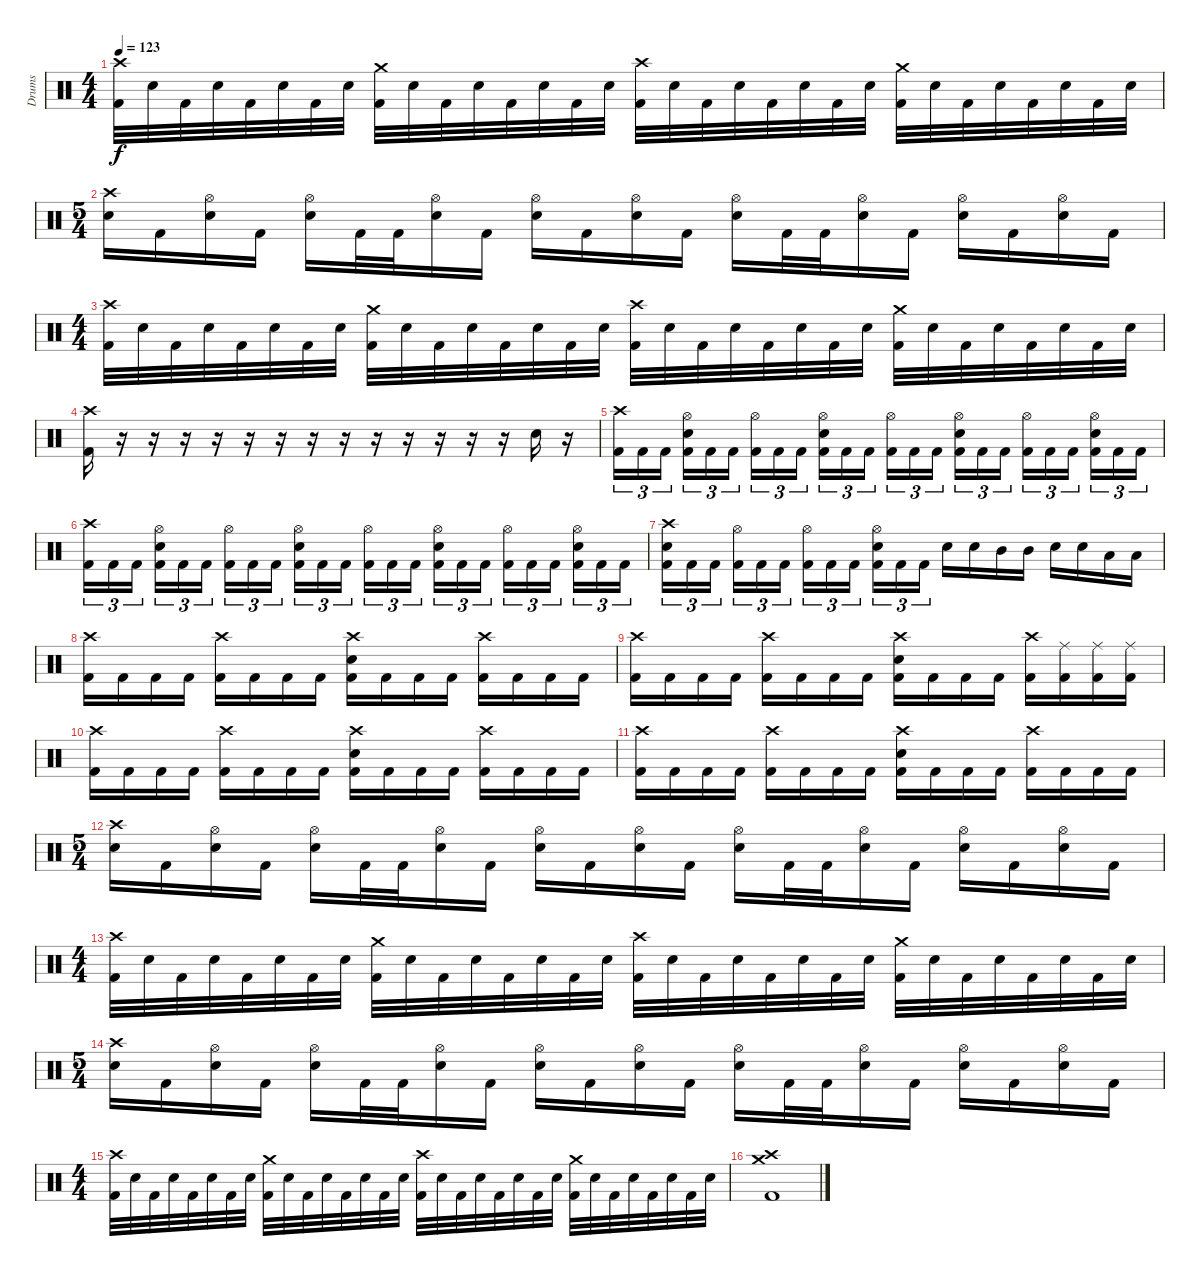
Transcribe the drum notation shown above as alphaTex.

\track ("Drums" "Drums") {instrument percussion}
\staff {score}
\articulation defaults
\ts (4 4)
\tempo 123
\clef neutral
\ks c
("Crash high (hit)" "Kick (hit) 2").32{dy f} "Electric Snare (hit)".32 "Kick (hit) 2".32 "Electric Snare (hit)".32 "Kick (hit) 2".32 "Electric Snare (hit)".32 "Kick (hit) 2".32 "Electric Snare (hit)".32 ("Crash medium (hit)" "Kick (hit) 2").32 "Electric Snare (hit)".32 "Kick (hit) 2".32 "Electric Snare (hit)".32 "Kick (hit) 2".32 "Electric Snare (hit)".32 "Kick (hit) 2".32 "Electric Snare (hit)".32 ("Crash high (hit)" "Kick (hit) 2").32 "Electric Snare (hit)".32 "Kick (hit) 2".32 "Electric Snare (hit)".32 "Kick (hit) 2".32 "Electric Snare (hit)".32 "Kick (hit) 2".32 "Electric Snare (hit)".32 ("Crash medium (hit)" "Kick (hit) 2").32 "Electric Snare (hit)".32 "Kick (hit) 2".32 "Electric Snare (hit)".32 "Kick (hit) 2".32 "Electric Snare (hit)".32 "Kick (hit) 2".32 "Electric Snare (hit)".32 |
\ts (5 4)
("Crash high (hit)" "Electric Snare (hit)").16 "Kick (hit) 2".16 ("Hi-Hat (open)" "Electric Snare (hit)").16 "Kick (hit) 2".16 ("Hi-Hat (open)" "Electric Snare (hit)").16 "Kick (hit) 2".32 "Kick (hit) 2".32 ("Hi-Hat (open)" "Electric Snare (hit)").16 "Kick (hit) 2".16 ("Hi-Hat (open)" "Electric Snare (hit)").16 "Kick (hit) 2".16 ("Hi-Hat (open)" "Electric Snare (hit)").16 "Kick (hit) 2".16 ("Hi-Hat (open)" "Electric Snare (hit)").16 "Kick (hit) 2".32 "Kick (hit) 2".32 ("Hi-Hat (open)" "Electric Snare (hit)").16 "Kick (hit) 2".16 ("Hi-Hat (open)" "Electric Snare (hit)").16 "Kick (hit) 2".16 ("Hi-Hat (open)" "Electric Snare (hit)").16 "Kick (hit) 2".16 |
\ts (4 4)
("Crash high (hit)" "Kick (hit) 2").32 "Electric Snare (hit)".32 "Kick (hit) 2".32 "Electric Snare (hit)".32 "Kick (hit) 2".32 "Electric Snare (hit)".32 "Kick (hit) 2".32 "Electric Snare (hit)".32 ("Crash medium (hit)" "Kick (hit) 2").32 "Electric Snare (hit)".32 "Kick (hit) 2".32 "Electric Snare (hit)".32 "Kick (hit) 2".32 "Electric Snare (hit)".32 "Kick (hit) 2".32 "Electric Snare (hit)".32 ("Crash high (hit)" "Kick (hit) 2").32 "Electric Snare (hit)".32 "Kick (hit) 2".32 "Electric Snare (hit)".32 "Kick (hit) 2".32 "Electric Snare (hit)".32 "Kick (hit) 2".32 "Electric Snare (hit)".32 ("Crash medium (hit)" "Kick (hit) 2").32 "Electric Snare (hit)".32 "Kick (hit) 2".32 "Electric Snare (hit)".32 "Kick (hit) 2".32 "Electric Snare (hit)".32 "Kick (hit) 2".32 "Electric Snare (hit)".32 |
("Crash high (hit)" "Kick (hit) 2").16 r.16{volume 0} r.16 r.16 r.16 r.16 r.16 r.16 r.16 r.16 r.16 r.16 r.16 r.16 "Electric Snare (hit)".16{volume 13} r.16 |
("Crash high (hit)" "Kick (hit) 2").16{tu (3 2)} "Kick (hit) 2".16{tu (3 2)} "Kick (hit) 2".16{tu (3 2) beam splitsecondary} ("Hi-Hat (open)" "Electric Snare (hit)" "Kick (hit) 2").16{tu (3 2)} "Kick (hit) 2".16{tu (3 2)} "Kick (hit) 2".16{tu (3 2)} ("Hi-Hat (open)" "Kick (hit) 2").16{tu (3 2)} "Kick (hit) 2".16{tu (3 2)} "Kick (hit) 2".16{tu (3 2) beam splitsecondary} ("Hi-Hat (open)" "Electric Snare (hit)" "Kick (hit) 2").16{tu (3 2)} "Kick (hit) 2".16{tu (3 2)} "Kick (hit) 2".16{tu (3 2)} ("Hi-Hat (open)" "Kick (hit) 2").16{tu (3 2)} "Kick (hit) 2".16{tu (3 2)} "Kick (hit) 2".16{tu (3 2) beam splitsecondary} ("Hi-Hat (open)" "Electric Snare (hit)" "Kick (hit) 2").16{tu (3 2)} "Kick (hit) 2".16{tu (3 2)} "Kick (hit) 2".16{tu (3 2)} ("Hi-Hat (open)" "Kick (hit) 2").16{tu (3 2)} "Kick (hit) 2".16{tu (3 2)} "Kick (hit) 2".16{tu (3 2) beam splitsecondary} ("Hi-Hat (open)" "Electric Snare (hit)" "Kick (hit) 2").16{tu (3 2)} "Kick (hit) 2".16{tu (3 2)} "Kick (hit) 2".16{tu (3 2)} |
("Crash high (hit)" "Kick (hit) 2").16{tu (3 2)} "Kick (hit) 2".16{tu (3 2)} "Kick (hit) 2".16{tu (3 2) beam splitsecondary} ("Hi-Hat (open)" "Electric Snare (hit)" "Kick (hit) 2").16{tu (3 2)} "Kick (hit) 2".16{tu (3 2)} "Kick (hit) 2".16{tu (3 2)} ("Hi-Hat (open)" "Kick (hit) 2").16{tu (3 2)} "Kick (hit) 2".16{tu (3 2)} "Kick (hit) 2".16{tu (3 2) beam splitsecondary} ("Hi-Hat (open)" "Electric Snare (hit)" "Kick (hit) 2").16{tu (3 2)} "Kick (hit) 2".16{tu (3 2)} "Kick (hit) 2".16{tu (3 2)} ("Hi-Hat (open)" "Kick (hit) 2").16{tu (3 2)} "Kick (hit) 2".16{tu (3 2)} "Kick (hit) 2".16{tu (3 2) beam splitsecondary} ("Hi-Hat (open)" "Electric Snare (hit)" "Kick (hit) 2").16{tu (3 2)} "Kick (hit) 2".16{tu (3 2)} "Kick (hit) 2".16{tu (3 2)} ("Hi-Hat (open)" "Kick (hit) 2").16{tu (3 2)} "Kick (hit) 2".16{tu (3 2)} "Kick (hit) 2".16{tu (3 2) beam splitsecondary} ("Hi-Hat (open)" "Electric Snare (hit)" "Kick (hit) 2").16{tu (3 2)} "Kick (hit) 2".16{tu (3 2)} "Kick (hit) 2".16{tu (3 2)} |
("Crash high (hit)" "Electric Snare (hit)" "Kick (hit) 2").16{tu (3 2)} "Kick (hit) 2".16{tu (3 2)} "Kick (hit) 2".16{tu (3 2) beam splitsecondary} ("Hi-Hat (open)" "Kick (hit) 2").16{tu (3 2)} "Kick (hit) 2".16{tu (3 2)} "Kick (hit) 2".16{tu (3 2)} ("Hi-Hat (open)" "Kick (hit) 2").16{tu (3 2)} "Kick (hit) 2".16{tu (3 2)} "Kick (hit) 2".16{tu (3 2) beam splitsecondary} ("Hi-Hat (open)" "Electric Snare (hit)" "Kick (hit) 2").16{tu (3 2)} "Kick (hit) 2".16{tu (3 2)} "Kick (hit) 2".16{tu (3 2)} "Electric Snare (hit)".16 "Electric Snare (hit)".16 "Mid Tom (hit)".16 "Mid Tom (hit)".16 "Electric Snare (hit)".16 "Electric Snare (hit)".16 "Low Tom (hit)".16 "Low Tom (hit)".16 |
("Crash high (hit)" "Kick (hit) 2").16 "Kick (hit) 2".16 "Kick (hit) 2".16 "Kick (hit) 2".16 ("Crash high (hit)" "Kick (hit) 2").16 "Kick (hit) 2".16 "Kick (hit) 2".16 "Kick (hit) 2".16 ("Crash high (hit)" "Electric Snare (hit)" "Kick (hit) 2").16 "Kick (hit) 2".16 "Kick (hit) 2".16 "Kick (hit) 2".16 ("Crash high (hit)" "Kick (hit) 2").16 "Kick (hit) 2".16 "Kick (hit) 2".16 "Kick (hit) 2".16 |
("Crash high (hit)" "Kick (hit) 2").16 "Kick (hit) 2".16 "Kick (hit) 2".16 "Kick (hit) 2".16 ("Crash high (hit)" "Kick (hit) 2").16 "Kick (hit) 2".16 "Kick (hit) 2".16 "Kick (hit) 2".16 ("Crash high (hit)" "Electric Snare (hit)" "Kick (hit) 2").16 "Kick (hit) 2".16 "Kick (hit) 2".16 "Kick (hit) 2".16 ("Crash high (hit)" "Kick (hit) 2").16 ("Ride (middle)" "Kick (hit) 2").16 ("Ride (middle)" "Kick (hit) 2").16 ("Ride (middle)" "Kick (hit) 2").16 |
("Crash high (hit)" "Kick (hit) 2").16 "Kick (hit) 2".16 "Kick (hit) 2".16 "Kick (hit) 2".16 ("Crash high (hit)" "Kick (hit) 2").16 "Kick (hit) 2".16 "Kick (hit) 2".16 "Kick (hit) 2".16 ("Crash high (hit)" "Electric Snare (hit)" "Kick (hit) 2").16 "Kick (hit) 2".16 "Kick (hit) 2".16 "Kick (hit) 2".16 ("Crash high (hit)" "Kick (hit) 2").16 "Kick (hit) 2".16 "Kick (hit) 2".16 "Kick (hit) 2".16 |
("Crash high (hit)" "Kick (hit) 2").16 "Kick (hit) 2".16 "Kick (hit) 2".16 "Kick (hit) 2".16 ("Crash high (hit)" "Kick (hit) 2").16 "Kick (hit) 2".16 "Kick (hit) 2".16 "Kick (hit) 2".16 ("Crash high (hit)" "Electric Snare (hit)" "Kick (hit) 2").16 "Kick (hit) 2".16 "Kick (hit) 2".16 "Kick (hit) 2".16 ("Crash high (hit)" "Kick (hit) 2").16 "Kick (hit) 2".16 "Kick (hit) 2".16 "Kick (hit) 2".16 |
\ts (5 4)
("Crash high (hit)" "Electric Snare (hit)").16 "Kick (hit) 2".16 ("Hi-Hat (open)" "Electric Snare (hit)").16 "Kick (hit) 2".16 ("Hi-Hat (open)" "Electric Snare (hit)").16 "Kick (hit) 2".32 "Kick (hit) 2".32 ("Hi-Hat (open)" "Electric Snare (hit)").16 "Kick (hit) 2".16 ("Hi-Hat (open)" "Electric Snare (hit)").16 "Kick (hit) 2".16 ("Hi-Hat (open)" "Electric Snare (hit)").16 "Kick (hit) 2".16 ("Hi-Hat (open)" "Electric Snare (hit)").16 "Kick (hit) 2".32 "Kick (hit) 2".32 ("Hi-Hat (open)" "Electric Snare (hit)").16 "Kick (hit) 2".16 ("Hi-Hat (open)" "Electric Snare (hit)").16 "Kick (hit) 2".16 ("Hi-Hat (open)" "Electric Snare (hit)").16 "Kick (hit) 2".16 |
\ts (4 4)
("Crash high (hit)" "Kick (hit) 2").32 "Electric Snare (hit)".32 "Kick (hit) 2".32 "Electric Snare (hit)".32 "Kick (hit) 2".32 "Electric Snare (hit)".32 "Kick (hit) 2".32 "Electric Snare (hit)".32 ("Crash medium (hit)" "Kick (hit) 2").32 "Electric Snare (hit)".32 "Kick (hit) 2".32 "Electric Snare (hit)".32 "Kick (hit) 2".32 "Electric Snare (hit)".32 "Kick (hit) 2".32 "Electric Snare (hit)".32 ("Crash high (hit)" "Kick (hit) 2").32 "Electric Snare (hit)".32 "Kick (hit) 2".32 "Electric Snare (hit)".32 "Kick (hit) 2".32 "Electric Snare (hit)".32 "Kick (hit) 2".32 "Electric Snare (hit)".32 ("Crash medium (hit)" "Kick (hit) 2").32 "Electric Snare (hit)".32 "Kick (hit) 2".32 "Electric Snare (hit)".32 "Kick (hit) 2".32 "Electric Snare (hit)".32 "Kick (hit) 2".32 "Electric Snare (hit)".32 |
\ts (5 4)
("Crash high (hit)" "Electric Snare (hit)").16 "Kick (hit) 2".16 ("Hi-Hat (open)" "Electric Snare (hit)").16 "Kick (hit) 2".16 ("Hi-Hat (open)" "Electric Snare (hit)").16 "Kick (hit) 2".32 "Kick (hit) 2".32 ("Hi-Hat (open)" "Electric Snare (hit)").16 "Kick (hit) 2".16 ("Hi-Hat (open)" "Electric Snare (hit)").16 "Kick (hit) 2".16 ("Hi-Hat (open)" "Electric Snare (hit)").16 "Kick (hit) 2".16 ("Hi-Hat (open)" "Electric Snare (hit)").16 "Kick (hit) 2".32 "Kick (hit) 2".32 ("Hi-Hat (open)" "Electric Snare (hit)").16 "Kick (hit) 2".16 ("Hi-Hat (open)" "Electric Snare (hit)").16 "Kick (hit) 2".16 ("Hi-Hat (open)" "Electric Snare (hit)").16 "Kick (hit) 2".16 |
\ts (4 4)
("Crash high (hit)" "Kick (hit) 2").32 "Electric Snare (hit)".32 "Kick (hit) 2".32 "Electric Snare (hit)".32 "Kick (hit) 2".32 "Electric Snare (hit)".32 "Kick (hit) 2".32 "Electric Snare (hit)".32 ("Crash medium (hit)" "Kick (hit) 2").32 "Electric Snare (hit)".32 "Kick (hit) 2".32 "Electric Snare (hit)".32 "Kick (hit) 2".32 "Electric Snare (hit)".32 "Kick (hit) 2".32 "Electric Snare (hit)".32 ("Crash high (hit)" "Kick (hit) 2").32 "Electric Snare (hit)".32 "Kick (hit) 2".32 "Electric Snare (hit)".32 "Kick (hit) 2".32 "Electric Snare (hit)".32 "Kick (hit) 2".32 "Electric Snare (hit)".32 ("Crash medium (hit)" "Kick (hit) 2").32 "Electric Snare (hit)".32 "Kick (hit) 2".32 "Electric Snare (hit)".32 "Kick (hit) 2".32 "Electric Snare (hit)".32 "Kick (hit) 2".32 "Electric Snare (hit)".32 |
("Crash high (hit)" "Crash medium (hit)" "Kick (hit) 2").1
